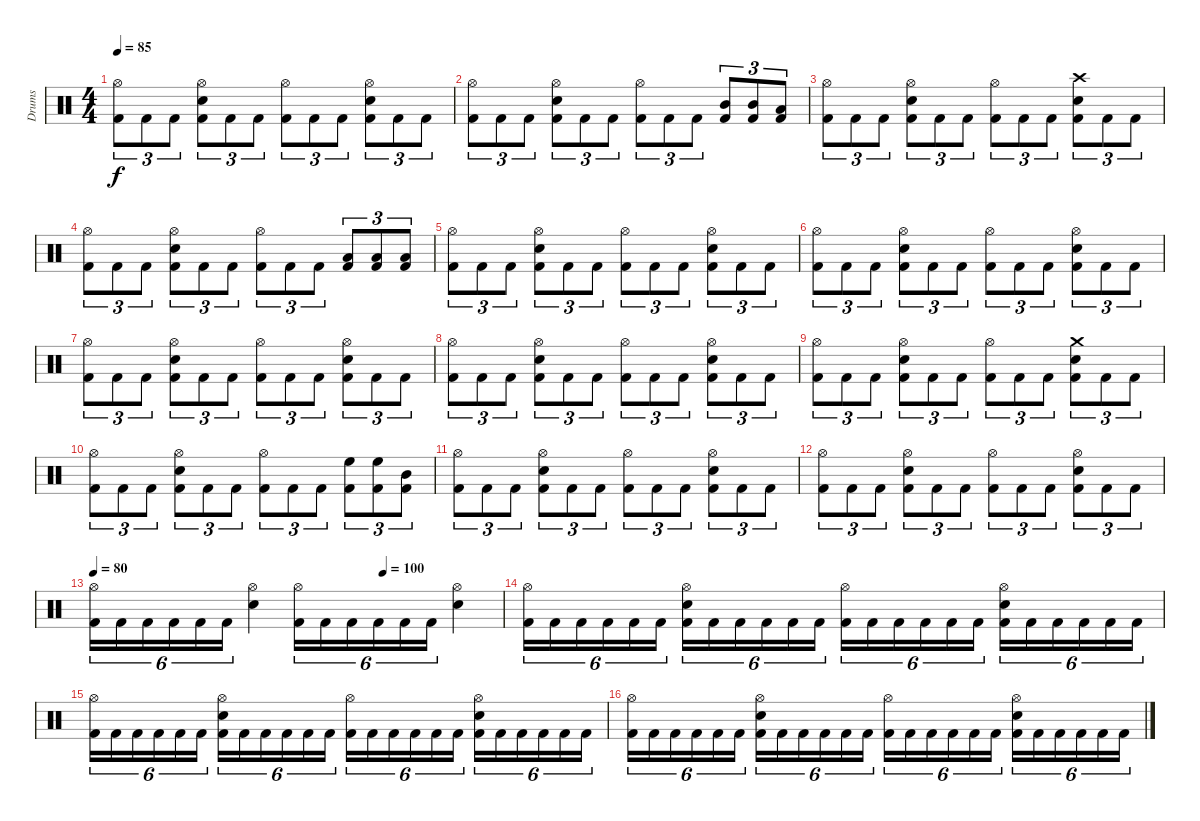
\track ("Drums" "Drums") {instrument percussion}
\staff {score}
\articulation defaults
\ts (4 4)
\tempo 85
\clef neutral
\ks c
("Hi-Hat (open)" "Kick (hit) 2").8{tu (3 2) dy f} "Kick (hit) 2".8{tu (3 2)} "Kick (hit) 2".8{tu (3 2)} ("Hi-Hat (open)" "Snare (hit) 2" "Kick (hit) 2").8{tu (3 2)} "Kick (hit) 2".8{tu (3 2)} "Kick (hit) 2".8{tu (3 2)} ("Hi-Hat (open)" "Kick (hit) 2").8{tu (3 2)} "Kick (hit) 2".8{tu (3 2)} "Kick (hit) 2".8{tu (3 2)} ("Hi-Hat (open)" "Snare (hit) 2" "Kick (hit) 2").8{tu (3 2)} "Kick (hit) 2".8{tu (3 2)} "Kick (hit) 2".8{tu (3 2)} |
("Hi-Hat (open)" "Kick (hit) 2").8{tu (3 2)} "Kick (hit) 2".8{tu (3 2)} "Kick (hit) 2".8{tu (3 2)} ("Hi-Hat (open)" "Snare (hit) 2" "Kick (hit) 2").8{tu (3 2)} "Kick (hit) 2".8{tu (3 2)} "Kick (hit) 2".8{tu (3 2)} ("Hi-Hat (open)" "Kick (hit) 2").8{tu (3 2)} "Kick (hit) 2".8{tu (3 2)} "Kick (hit) 2".8{tu (3 2)} ("Mid Tom (hit)" "Kick (hit) 2").8{tu (3 2)} ("Mid Tom (hit)" "Kick (hit) 2").8{tu (3 2)} ("Low Tom (hit)" "Kick (hit) 2").8{tu (3 2)} |
("Hi-Hat (open)" "Kick (hit) 2").8{tu (3 2)} "Kick (hit) 2".8{tu (3 2)} "Kick (hit) 2".8{tu (3 2)} ("Hi-Hat (open)" "Snare (hit) 2" "Kick (hit) 2").8{tu (3 2)} "Kick (hit) 2".8{tu (3 2)} "Kick (hit) 2".8{tu (3 2)} ("Hi-Hat (open)" "Kick (hit) 2").8{tu (3 2)} "Kick (hit) 2".8{tu (3 2)} "Kick (hit) 2".8{tu (3 2)} ("Crash high (hit)" "Snare (hit) 2" "Kick (hit) 2").8{tu (3 2)} "Kick (hit) 2".8{tu (3 2)} "Kick (hit) 2".8{tu (3 2)} |
("Hi-Hat (open)" "Kick (hit) 2").8{tu (3 2)} "Kick (hit) 2".8{tu (3 2)} "Kick (hit) 2".8{tu (3 2)} ("Hi-Hat (open)" "Snare (hit) 2" "Kick (hit) 2").8{tu (3 2)} "Kick (hit) 2".8{tu (3 2)} "Kick (hit) 2".8{tu (3 2)} ("Hi-Hat (open)" "Kick (hit) 2").8{tu (3 2)} "Kick (hit) 2".8{tu (3 2)} "Kick (hit) 2".8{tu (3 2)} ("Low Floor Tom (hit)" "Kick (hit) 2").8{tu (3 2)} ("Low Floor Tom (hit)" "Kick (hit) 2").8{tu (3 2)} ("Low Tom (hit)" "Kick (hit) 2").8{tu (3 2)} |
("Hi-Hat (open)" "Kick (hit) 2").8{tu (3 2)} "Kick (hit) 2".8{tu (3 2)} "Kick (hit) 2".8{tu (3 2)} ("Hi-Hat (open)" "Snare (hit) 2" "Kick (hit) 2").8{tu (3 2)} "Kick (hit) 2".8{tu (3 2)} "Kick (hit) 2".8{tu (3 2)} ("Hi-Hat (open)" "Kick (hit) 2").8{tu (3 2)} "Kick (hit) 2".8{tu (3 2)} "Kick (hit) 2".8{tu (3 2)} ("Hi-Hat (open)" "Snare (hit) 2" "Kick (hit) 2").8{tu (3 2)} "Kick (hit) 2".8{tu (3 2)} "Kick (hit) 2".8{tu (3 2)} |
("Hi-Hat (open)" "Kick (hit) 2").8{tu (3 2)} "Kick (hit) 2".8{tu (3 2)} "Kick (hit) 2".8{tu (3 2)} ("Hi-Hat (open)" "Snare (hit) 2" "Kick (hit) 2").8{tu (3 2)} "Kick (hit) 2".8{tu (3 2)} "Kick (hit) 2".8{tu (3 2)} ("Hi-Hat (open)" "Kick (hit) 2").8{tu (3 2)} "Kick (hit) 2".8{tu (3 2)} "Kick (hit) 2".8{tu (3 2)} ("Hi-Hat (open)" "Snare (hit) 2" "Kick (hit) 2").8{tu (3 2)} "Kick (hit) 2".8{tu (3 2)} "Kick (hit) 2".8{tu (3 2)} |
("Hi-Hat (open)" "Kick (hit) 2").8{tu (3 2)} "Kick (hit) 2".8{tu (3 2)} "Kick (hit) 2".8{tu (3 2)} ("Hi-Hat (open)" "Snare (hit) 2" "Kick (hit) 2").8{tu (3 2)} "Kick (hit) 2".8{tu (3 2)} "Kick (hit) 2".8{tu (3 2)} ("Hi-Hat (open)" "Kick (hit) 2").8{tu (3 2)} "Kick (hit) 2".8{tu (3 2)} "Kick (hit) 2".8{tu (3 2)} ("Hi-Hat (open)" "Snare (hit) 2" "Kick (hit) 2").8{tu (3 2)} "Kick (hit) 2".8{tu (3 2)} "Kick (hit) 2".8{tu (3 2)} |
("Hi-Hat (open)" "Kick (hit) 2").8{tu (3 2)} "Kick (hit) 2".8{tu (3 2)} "Kick (hit) 2".8{tu (3 2)} ("Hi-Hat (open)" "Snare (hit) 2" "Kick (hit) 2").8{tu (3 2)} "Kick (hit) 2".8{tu (3 2)} "Kick (hit) 2".8{tu (3 2)} ("Hi-Hat (open)" "Kick (hit) 2").8{tu (3 2)} "Kick (hit) 2".8{tu (3 2)} "Kick (hit) 2".8{tu (3 2)} ("Hi-Hat (open)" "Snare (hit) 2" "Kick (hit) 2").8{tu (3 2)} "Kick (hit) 2".8{tu (3 2)} "Kick (hit) 2".8{tu (3 2)} |
("Hi-Hat (open)" "Kick (hit) 2").8{tu (3 2)} "Kick (hit) 2".8{tu (3 2)} "Kick (hit) 2".8{tu (3 2)} ("Hi-Hat (open)" "Snare (hit) 2" "Kick (hit) 2").8{tu (3 2)} "Kick (hit) 2".8{tu (3 2)} "Kick (hit) 2".8{tu (3 2)} ("Hi-Hat (open)" "Kick (hit) 2").8{tu (3 2)} "Kick (hit) 2".8{tu (3 2)} "Kick (hit) 2".8{tu (3 2)} ("Crash medium (hit)" "Snare (hit) 2" "Kick (hit) 2").8{tu (3 2)} "Kick (hit) 2".8{tu (3 2)} "Kick (hit) 2".8{tu (3 2)} |
("Hi-Hat (open)" "Kick (hit) 2").8{tu (3 2)} "Kick (hit) 2".8{tu (3 2)} "Kick (hit) 2".8{tu (3 2)} ("Hi-Hat (open)" "Snare (hit) 2" "Kick (hit) 2").8{tu (3 2)} "Kick (hit) 2".8{tu (3 2)} "Kick (hit) 2".8{tu (3 2)} ("Hi-Hat (open)" "Kick (hit) 2").8{tu (3 2)} "Kick (hit) 2".8{tu (3 2)} "Kick (hit) 2".8{tu (3 2)} ("High Floor Tom (hit)" "Kick (hit) 2").8{tu (3 2)} ("High Floor Tom (hit)" "Kick (hit) 2").8{tu (3 2)} ("Mid Tom (hit)" "Kick (hit) 2").8{tu (3 2)} |
("Hi-Hat (open)" "Kick (hit) 2").8{tu (3 2)} "Kick (hit) 2".8{tu (3 2)} "Kick (hit) 2".8{tu (3 2)} ("Hi-Hat (open)" "Snare (hit) 2" "Kick (hit) 2").8{tu (3 2)} "Kick (hit) 2".8{tu (3 2)} "Kick (hit) 2".8{tu (3 2)} ("Hi-Hat (open)" "Kick (hit) 2").8{tu (3 2)} "Kick (hit) 2".8{tu (3 2)} "Kick (hit) 2".8{tu (3 2)} ("Hi-Hat (open)" "Snare (hit) 2" "Kick (hit) 2").8{tu (3 2)} "Kick (hit) 2".8{tu (3 2)} "Kick (hit) 2".8{tu (3 2)} |
("Hi-Hat (open)" "Kick (hit) 2").8{tu (3 2)} "Kick (hit) 2".8{tu (3 2)} "Kick (hit) 2".8{tu (3 2)} ("Hi-Hat (open)" "Snare (hit) 2" "Kick (hit) 2").8{tu (3 2)} "Kick (hit) 2".8{tu (3 2)} "Kick (hit) 2".8{tu (3 2)} ("Hi-Hat (open)" "Kick (hit) 2").8{tu (3 2)} "Kick (hit) 2".8{tu (3 2)} "Kick (hit) 2".8{tu (3 2)} ("Hi-Hat (open)" "Snare (hit) 2" "Kick (hit) 2").8{tu (3 2)} "Kick (hit) 2".8{tu (3 2)} "Kick (hit) 2".8{tu (3 2)} |
\tempo 80
\tempo (100 0.7083333333333334)
("Hi-Hat (open)" "Kick (hit) 2").16{tu (6 4)} "Kick (hit) 2".16{tu (6 4)} "Kick (hit) 2".16{tu (6 4)} "Kick (hit) 2".16{tu (6 4)} "Kick (hit) 2".16{tu (6 4)} "Kick (hit) 2".16{tu (6 4)} ("Hi-Hat (open)" "Snare (hit) 2").4 ("Hi-Hat (open)" "Kick (hit) 2").16{tu (6 4)} "Kick (hit) 2".16{tu (6 4)} "Kick (hit) 2".16{tu (6 4)} "Kick (hit) 2".16{tu (6 4)} "Kick (hit) 2".16{tu (6 4)} "Kick (hit) 2".16{tu (6 4)} ("Hi-Hat (open)" "Snare (hit) 2").4 |
("Hi-Hat (open)" "Kick (hit) 2").16{tu (6 4)} "Kick (hit) 2".16{tu (6 4)} "Kick (hit) 2".16{tu (6 4)} "Kick (hit) 2".16{tu (6 4)} "Kick (hit) 2".16{tu (6 4)} "Kick (hit) 2".16{tu (6 4)} ("Hi-Hat (open)" "Snare (hit) 2" "Kick (hit) 2").16{tu (6 4)} "Kick (hit) 2".16{tu (6 4)} "Kick (hit) 2".16{tu (6 4)} "Kick (hit) 2".16{tu (6 4)} "Kick (hit) 2".16{tu (6 4)} "Kick (hit) 2".16{tu (6 4)} ("Hi-Hat (open)" "Kick (hit) 2").16{tu (6 4)} "Kick (hit) 2".16{tu (6 4)} "Kick (hit) 2".16{tu (6 4)} "Kick (hit) 2".16{tu (6 4)} "Kick (hit) 2".16{tu (6 4)} "Kick (hit) 2".16{tu (6 4)} ("Hi-Hat (open)" "Snare (hit) 2" "Kick (hit) 2").16{tu (6 4)} "Kick (hit) 2".16{tu (6 4)} "Kick (hit) 2".16{tu (6 4)} "Kick (hit) 2".16{tu (6 4)} "Kick (hit) 2".16{tu (6 4)} "Kick (hit) 2".16{tu (6 4)} |
("Hi-Hat (open)" "Kick (hit) 2").16{tu (6 4)} "Kick (hit) 2".16{tu (6 4)} "Kick (hit) 2".16{tu (6 4)} "Kick (hit) 2".16{tu (6 4)} "Kick (hit) 2".16{tu (6 4)} "Kick (hit) 2".16{tu (6 4)} ("Hi-Hat (open)" "Snare (hit) 2" "Kick (hit) 2").16{tu (6 4)} "Kick (hit) 2".16{tu (6 4)} "Kick (hit) 2".16{tu (6 4)} "Kick (hit) 2".16{tu (6 4)} "Kick (hit) 2".16{tu (6 4)} "Kick (hit) 2".16{tu (6 4)} ("Hi-Hat (open)" "Kick (hit) 2").16{tu (6 4)} "Kick (hit) 2".16{tu (6 4)} "Kick (hit) 2".16{tu (6 4)} "Kick (hit) 2".16{tu (6 4)} "Kick (hit) 2".16{tu (6 4)} "Kick (hit) 2".16{tu (6 4)} ("Hi-Hat (open)" "Snare (hit) 2" "Kick (hit) 2").16{tu (6 4)} "Kick (hit) 2".16{tu (6 4)} "Kick (hit) 2".16{tu (6 4)} "Kick (hit) 2".16{tu (6 4)} "Kick (hit) 2".16{tu (6 4)} "Kick (hit) 2".16{tu (6 4)} |
("Hi-Hat (open)" "Kick (hit) 2").16{tu (6 4)} "Kick (hit) 2".16{tu (6 4)} "Kick (hit) 2".16{tu (6 4)} "Kick (hit) 2".16{tu (6 4)} "Kick (hit) 2".16{tu (6 4)} "Kick (hit) 2".16{tu (6 4)} ("Hi-Hat (open)" "Snare (hit) 2" "Kick (hit) 2").16{tu (6 4)} "Kick (hit) 2".16{tu (6 4)} "Kick (hit) 2".16{tu (6 4)} "Kick (hit) 2".16{tu (6 4)} "Kick (hit) 2".16{tu (6 4)} "Kick (hit) 2".16{tu (6 4)} ("Hi-Hat (open)" "Kick (hit) 2").16{tu (6 4)} "Kick (hit) 2".16{tu (6 4)} "Kick (hit) 2".16{tu (6 4)} "Kick (hit) 2".16{tu (6 4)} "Kick (hit) 2".16{tu (6 4)} "Kick (hit) 2".16{tu (6 4)} ("Hi-Hat (open)" "Snare (hit) 2" "Kick (hit) 2").16{tu (6 4)} "Kick (hit) 2".16{tu (6 4)} "Kick (hit) 2".16{tu (6 4)} "Kick (hit) 2".16{tu (6 4)} "Kick (hit) 2".16{tu (6 4)} "Kick (hit) 2".16{tu (6 4)}
